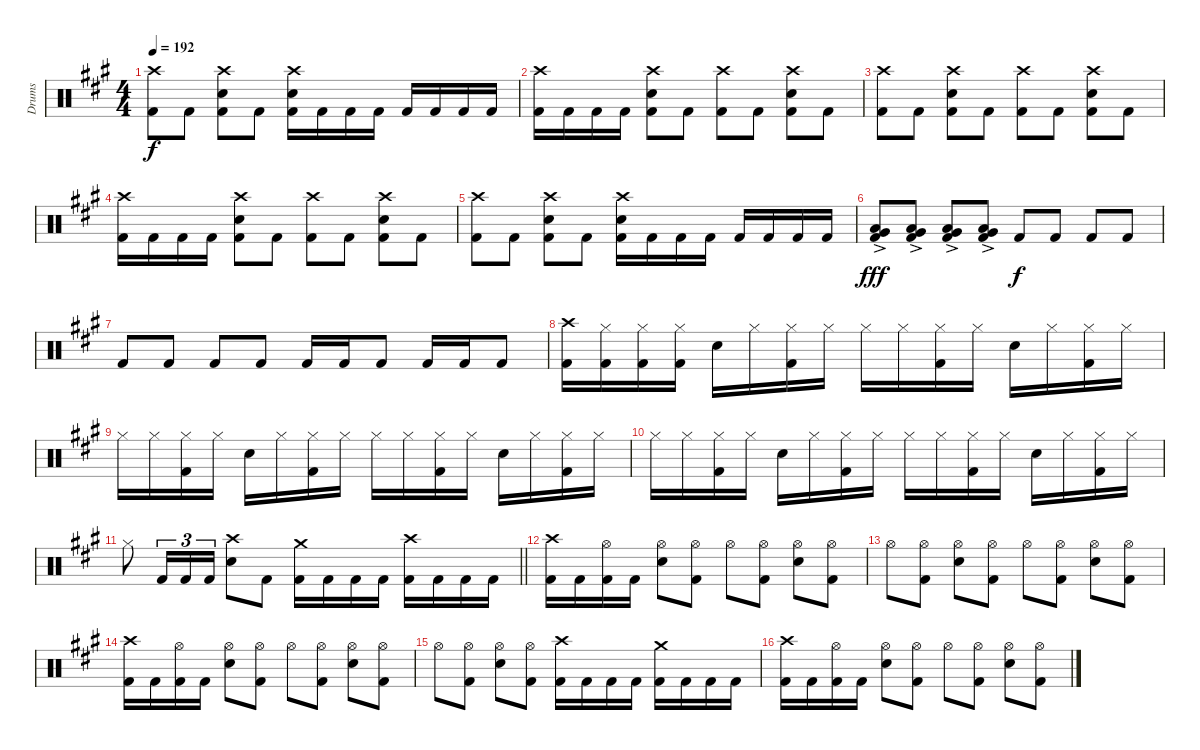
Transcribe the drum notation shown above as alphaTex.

\track ("Drums" "Drums") {instrument percussion}
\staff {score}
\articulation defaults
\ts (4 4)
\tempo 192
\clef neutral
\ks f#minor
("Crash high (hit)" "Kick (hit) 2").8{dy f} "Kick (hit) 2".8 ("Crash high (hit)" "Snare (hit) 2" "Kick (hit) 2").8 "Kick (hit) 2".8 ("Crash high (hit)" "Snare (hit) 2" "Kick (hit) 2").16 "Kick (hit) 2".16 "Kick (hit) 2".16 "Kick (hit) 2".16 "Kick (hit) 2".16 "Kick (hit) 2".16 "Kick (hit) 2".16 "Kick (hit) 2".16 |
("Crash high (hit)" "Kick (hit) 2").16 "Kick (hit) 2".16 "Kick (hit) 2".16 "Kick (hit) 2".16 ("Crash high (hit)" "Snare (hit) 2" "Kick (hit) 2").8 "Kick (hit) 2".8 ("Crash high (hit)" "Kick (hit) 2").8 "Kick (hit) 2".8 ("Crash high (hit)" "Snare (hit) 2" "Kick (hit) 2").8 "Kick (hit) 2".8 |
("Crash high (hit)" "Kick (hit) 2").8 "Kick (hit) 2".8 ("Crash high (hit)" "Snare (hit) 2" "Kick (hit) 2").8 "Kick (hit) 2".8 ("Crash high (hit)" "Kick (hit) 2").8 "Kick (hit) 2".8 ("Crash high (hit)" "Snare (hit) 2" "Kick (hit) 2").8 "Kick (hit) 2".8 |
("Crash high (hit)" "Kick (hit) 2").16 "Kick (hit) 2".16 "Kick (hit) 2".16 "Kick (hit) 2".16 ("Crash high (hit)" "Snare (hit) 2" "Kick (hit) 2").8 "Kick (hit) 2".8 ("Crash high (hit)" "Kick (hit) 2").8 "Kick (hit) 2".8 ("Crash high (hit)" "Snare (hit) 2" "Kick (hit) 2").8 "Kick (hit) 2".8 |
("Crash high (hit)" "Kick (hit) 2").8 "Kick (hit) 2".8 ("Crash high (hit)" "Snare (hit) 2" "Kick (hit) 2").8 "Kick (hit) 2".8 ("Crash high (hit)" "Snare (hit) 2" "Kick (hit) 2").16 "Kick (hit) 2".16 "Kick (hit) 2".16 "Kick (hit) 2".16 "Kick (hit) 2".16 "Kick (hit) 2".16 "Kick (hit) 2".16 "Kick (hit) 2".16 |
("Low Tom (hit)"{ac} "Very Low Tom (hit)"{ac} "Kick (hit) 2").8{dy fff} ("Low Tom (hit)"{ac} "Very Low Tom (hit)"{ac} "Kick (hit) 2").8 ("Low Tom (hit)"{ac} "Very Low Tom (hit)"{ac} "Kick (hit) 2").8 ("Low Tom (hit)"{ac} "Very Low Tom (hit)"{ac} "Kick (hit) 2").8 "Kick (hit) 2".8{dy f} "Kick (hit) 2".8 "Kick (hit) 2".8 "Kick (hit) 2".8 |
"Kick (hit) 2".8 "Kick (hit) 2".8 "Kick (hit) 2".8 "Kick (hit) 2".8 "Kick (hit) 2".16 "Kick (hit) 2".16 "Kick (hit) 2".8 "Kick (hit) 2".16 "Kick (hit) 2".16 "Kick (hit) 2".8 |
("Crash high (hit)" "Kick (hit) 2").16 ("Hi-Hat (closed)" "Kick (hit) 2").16 ("Hi-Hat (closed)" "Kick (hit) 2").16 ("Hi-Hat (closed)" "Kick (hit) 2").16 "Snare (hit) 2".16 "Hi-Hat (closed)".16 ("Hi-Hat (closed)" "Kick (hit) 2").16 "Hi-Hat (closed)".16 "Hi-Hat (closed)".16 "Hi-Hat (closed)".16 ("Hi-Hat (closed)" "Kick (hit) 2").16 "Hi-Hat (closed)".16 "Snare (hit) 2".16 "Hi-Hat (closed)".16 ("Hi-Hat (closed)" "Kick (hit) 2").16 "Hi-Hat (closed)".16 |
"Hi-Hat (closed)".16 "Hi-Hat (closed)".16 ("Hi-Hat (closed)" "Kick (hit) 2").16 "Hi-Hat (closed)".16 "Snare (hit) 2".16 "Hi-Hat (closed)".16 ("Hi-Hat (closed)" "Kick (hit) 2").16 "Hi-Hat (closed)".16 "Hi-Hat (closed)".16 "Hi-Hat (closed)".16 ("Hi-Hat (closed)" "Kick (hit) 2").16 "Hi-Hat (closed)".16 "Snare (hit) 2".16 "Hi-Hat (closed)".16 ("Hi-Hat (closed)" "Kick (hit) 2").16 "Hi-Hat (closed)".16 |
"Hi-Hat (closed)".16 "Hi-Hat (closed)".16 ("Hi-Hat (closed)" "Kick (hit) 2").16 "Hi-Hat (closed)".16 "Snare (hit) 2".16 "Hi-Hat (closed)".16 ("Hi-Hat (closed)" "Kick (hit) 2").16 "Hi-Hat (closed)".16 "Hi-Hat (closed)".16 "Hi-Hat (closed)".16 ("Hi-Hat (closed)" "Kick (hit) 2").16 "Hi-Hat (closed)".16 "Snare (hit) 2".16 "Hi-Hat (closed)".16 ("Hi-Hat (closed)" "Kick (hit) 2").16 "Hi-Hat (closed)".16 |
\barLineRight lightlight "Hi-Hat (closed)".8 "Kick (hit) 2".16{tu (3 2)} "Kick (hit) 2".16{tu (3 2)} "Kick (hit) 2".16{tu (3 2)}
("Crash high (hit)" "Snare (hit) 2").8 "Kick (hit) 2".8 ("Crash medium (hit)" "Kick (hit) 2").16 "Kick (hit) 2".16 "Kick (hit) 2".16 "Kick (hit) 2".16 ("Crash high (hit)" "Kick (hit) 2").16 "Kick (hit) 2".16 "Kick (hit) 2".16 "Kick (hit) 2".16 |
("Crash high (hit)" "Kick (hit) 2").16 "Kick (hit) 2".16 ("Hi-Hat (open)" "Kick (hit) 2").16 "Kick (hit) 2".16 ("Hi-Hat (open)" "Snare (hit) 2").8 ("Hi-Hat (open)" "Kick (hit) 2").8 "Hi-Hat (open)".8 ("Hi-Hat (open)" "Kick (hit) 2").8 ("Hi-Hat (open)" "Snare (hit) 2").8 ("Hi-Hat (open)" "Kick (hit) 2").8 |
"Hi-Hat (open)".8 ("Hi-Hat (open)" "Kick (hit) 2").8 ("Hi-Hat (open)" "Snare (hit) 2").8 ("Hi-Hat (open)" "Kick (hit) 2").8 "Hi-Hat (open)".8 ("Hi-Hat (open)" "Kick (hit) 2").8 ("Hi-Hat (open)" "Snare (hit) 2").8 ("Hi-Hat (open)" "Kick (hit) 2").8 |
("Crash high (hit)" "Kick (hit) 2").16 "Kick (hit) 2".16 ("Hi-Hat (open)" "Kick (hit) 2").16 "Kick (hit) 2".16 ("Hi-Hat (open)" "Snare (hit) 2").8 ("Hi-Hat (open)" "Kick (hit) 2").8 "Hi-Hat (open)".8 ("Hi-Hat (open)" "Kick (hit) 2").8 ("Hi-Hat (open)" "Snare (hit) 2").8 ("Hi-Hat (open)" "Kick (hit) 2").8 |
"Hi-Hat (open)".8 ("Hi-Hat (open)" "Kick (hit) 2").8 ("Hi-Hat (open)" "Snare (hit) 2").8 ("Hi-Hat (open)" "Kick (hit) 2").8 ("Crash high (hit)" "Kick (hit) 2").16 "Kick (hit) 2".16 "Kick (hit) 2".16 "Kick (hit) 2".16 ("Crash medium (hit)" "Kick (hit) 2").16 "Kick (hit) 2".16 "Kick (hit) 2".16 "Kick (hit) 2".16 |
("Crash high (hit)" "Kick (hit) 2").16 "Kick (hit) 2".16 ("Hi-Hat (open)" "Kick (hit) 2").16 "Kick (hit) 2".16 ("Hi-Hat (open)" "Snare (hit) 2").8 ("Hi-Hat (open)" "Kick (hit) 2").8 "Hi-Hat (open)".8 ("Hi-Hat (open)" "Kick (hit) 2").8 ("Hi-Hat (open)" "Snare (hit) 2").8 ("Hi-Hat (open)" "Kick (hit) 2").8
